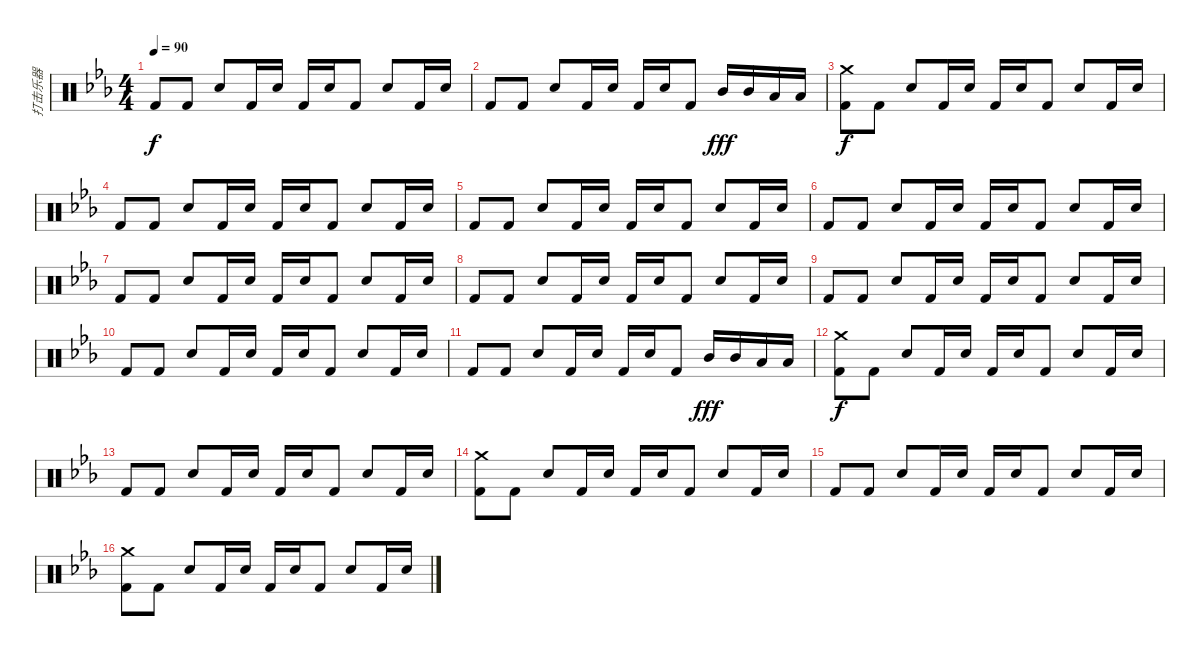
\track ("打击乐器" "打击乐器") {instrument percussion}
\staff {score}
\articulation defaults
\ts (4 4)
\tempo 90
\clef neutral
\ks eb "Kick (hit) 2".8{dy f} "Kick (hit) 2".8 "Electric Snare (hit)".8 "Kick (hit) 2".16 "Electric Snare (hit)".16 "Kick (hit) 2".16 "Electric Snare (hit)".16 "Kick (hit) 2".8 "Electric Snare (hit)".8 "Kick (hit) 2".16 "Electric Snare (hit)".16
|
"Kick (hit) 2".8 "Kick (hit) 2".8 "Electric Snare (hit)".8 "Kick (hit) 2".16 "Electric Snare (hit)".16 "Kick (hit) 2".16 "Electric Snare (hit)".16 "Kick (hit) 2".8 "Mid Tom (hit)".16{dy fff} "Mid Tom (hit)".16 "Low Tom (hit)".16 "Low Tom (hit)".16 |
("Crash medium (hit)" "Kick (hit) 2").8{dy f} "Kick (hit) 2".8 "Electric Snare (hit)".8 "Kick (hit) 2".16 "Electric Snare (hit)".16 "Kick (hit) 2".16 "Electric Snare (hit)".16 "Kick (hit) 2".8 "Electric Snare (hit)".8 "Kick (hit) 2".16 "Electric Snare (hit)".16 |
"Kick (hit) 2".8 "Kick (hit) 2".8 "Electric Snare (hit)".8 "Kick (hit) 2".16 "Electric Snare (hit)".16 "Kick (hit) 2".16 "Electric Snare (hit)".16 "Kick (hit) 2".8 "Electric Snare (hit)".8 "Kick (hit) 2".16 "Electric Snare (hit)".16 |
"Kick (hit) 2".8 "Kick (hit) 2".8 "Electric Snare (hit)".8 "Kick (hit) 2".16 "Electric Snare (hit)".16 "Kick (hit) 2".16 "Electric Snare (hit)".16 "Kick (hit) 2".8 "Electric Snare (hit)".8 "Kick (hit) 2".16 "Electric Snare (hit)".16 |
"Kick (hit) 2".8 "Kick (hit) 2".8 "Electric Snare (hit)".8 "Kick (hit) 2".16 "Electric Snare (hit)".16 "Kick (hit) 2".16 "Electric Snare (hit)".16 "Kick (hit) 2".8 "Electric Snare (hit)".8 "Kick (hit) 2".16 "Electric Snare (hit)".16 |
"Kick (hit) 2".8 "Kick (hit) 2".8 "Electric Snare (hit)".8 "Kick (hit) 2".16 "Electric Snare (hit)".16 "Kick (hit) 2".16 "Electric Snare (hit)".16 "Kick (hit) 2".8 "Electric Snare (hit)".8 "Kick (hit) 2".16 "Electric Snare (hit)".16 |
"Kick (hit) 2".8 "Kick (hit) 2".8 "Electric Snare (hit)".8 "Kick (hit) 2".16 "Electric Snare (hit)".16 "Kick (hit) 2".16 "Electric Snare (hit)".16 "Kick (hit) 2".8 "Electric Snare (hit)".8 "Kick (hit) 2".16 "Electric Snare (hit)".16 |
"Kick (hit) 2".8 "Kick (hit) 2".8 "Electric Snare (hit)".8 "Kick (hit) 2".16 "Electric Snare (hit)".16 "Kick (hit) 2".16 "Electric Snare (hit)".16 "Kick (hit) 2".8 "Electric Snare (hit)".8 "Kick (hit) 2".16 "Electric Snare (hit)".16 |
"Kick (hit) 2".8 "Kick (hit) 2".8 "Electric Snare (hit)".8 "Kick (hit) 2".16 "Electric Snare (hit)".16 "Kick (hit) 2".16 "Electric Snare (hit)".16 "Kick (hit) 2".8 "Electric Snare (hit)".8 "Kick (hit) 2".16 "Electric Snare (hit)".16 |
"Kick (hit) 2".8 "Kick (hit) 2".8 "Electric Snare (hit)".8 "Kick (hit) 2".16 "Electric Snare (hit)".16 "Kick (hit) 2".16 "Electric Snare (hit)".16 "Kick (hit) 2".8 "Mid Tom (hit)".16{dy fff} "Mid Tom (hit)".16 "Low Tom (hit)".16 "Low Tom (hit)".16 |
("Crash medium (hit)" "Kick (hit) 2").8{dy f volume 12} "Kick (hit) 2".8 "Electric Snare (hit)".8 "Kick (hit) 2".16 "Electric Snare (hit)".16 "Kick (hit) 2".16 "Electric Snare (hit)".16 "Kick (hit) 2".8 "Electric Snare (hit)".8 "Kick (hit) 2".16 "Electric Snare (hit)".16 |
"Kick (hit) 2".8 "Kick (hit) 2".8 "Electric Snare (hit)".8 "Kick (hit) 2".16 "Electric Snare (hit)".16 "Kick (hit) 2".16 "Electric Snare (hit)".16 "Kick (hit) 2".8 "Electric Snare (hit)".8 "Kick (hit) 2".16 "Electric Snare (hit)".16 |
("Crash medium (hit)" "Kick (hit) 2").8 "Kick (hit) 2".8 "Electric Snare (hit)".8 "Kick (hit) 2".16 "Electric Snare (hit)".16 "Kick (hit) 2".16 "Electric Snare (hit)".16 "Kick (hit) 2".8 "Electric Snare (hit)".8 "Kick (hit) 2".16 "Electric Snare (hit)".16 |
"Kick (hit) 2".8 "Kick (hit) 2".8 "Electric Snare (hit)".8 "Kick (hit) 2".16 "Electric Snare (hit)".16 "Kick (hit) 2".16 "Electric Snare (hit)".16 "Kick (hit) 2".8 "Electric Snare (hit)".8 "Kick (hit) 2".16 "Electric Snare (hit)".16 |
("Crash medium (hit)" "Kick (hit) 2").8 "Kick (hit) 2".8 "Electric Snare (hit)".8 "Kick (hit) 2".16 "Electric Snare (hit)".16 "Kick (hit) 2".16 "Electric Snare (hit)".16 "Kick (hit) 2".8 "Electric Snare (hit)".8 "Kick (hit) 2".16 "Electric Snare (hit)".16
